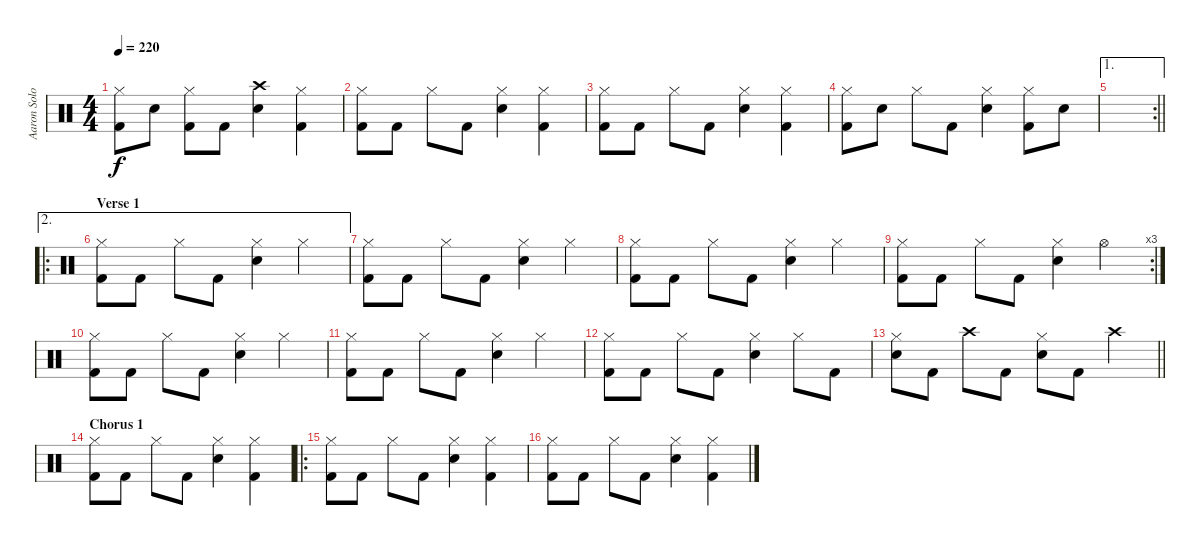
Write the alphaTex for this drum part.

\track ("Aaron Solowoniuk" "Aaron Solo") {instrument percussion}
\staff {score}
\articulation defaults
\ts (4 4)
\tempo 220
\clef neutral
\ks c
("Hi-Hat (closed)" "Kick (hit) 2").8{dy f} "Snare (hit) 2".8 ("Hi-Hat (closed)" "Kick (hit) 2").8 "Kick (hit) 2".8 ("Crash high (hit)" "Snare (hit) 2").4 ("Hi-Hat (closed)" "Kick (hit) 2").4 |
("Hi-Hat (closed)" "Kick (hit) 2").8 "Kick (hit) 2".8 "Hi-Hat (closed)".8 "Kick (hit) 2".8 ("Hi-Hat (closed)" "Snare (hit) 2").4 ("Hi-Hat (closed)" "Kick (hit) 2").4 |
("Hi-Hat (closed)" "Kick (hit) 2").8 "Kick (hit) 2".8 "Hi-Hat (closed)".8 "Kick (hit) 2".8 ("Hi-Hat (closed)" "Snare (hit) 2").4 ("Hi-Hat (closed)" "Kick (hit) 2").4 |
("Hi-Hat (closed)" "Kick (hit) 2").8 "Snare (hit) 2".8 "Hi-Hat (closed)".8 "Kick (hit) 2".8 ("Hi-Hat (closed)" "Snare (hit) 2").4 ("Hi-Hat (closed)" "Kick (hit) 2").8 "Snare (hit) 2".8 |
\ae 1
\rc 2
\barLineRight lightlight
|
\ae 2
\ro
\section ("" "Verse 1")
("Hi-Hat (closed)" "Kick (hit) 2").8 "Kick (hit) 2".8 "Hi-Hat (closed)".8 "Kick (hit) 2".8 ("Hi-Hat (closed)" "Snare (hit) 2").4 "Hi-Hat (closed)".4 |
("Hi-Hat (closed)" "Kick (hit) 2").8 "Kick (hit) 2".8 "Hi-Hat (closed)".8 "Kick (hit) 2".8 ("Hi-Hat (closed)" "Snare (hit) 2").4 "Hi-Hat (closed)".4 |
("Hi-Hat (closed)" "Kick (hit) 2").8 "Kick (hit) 2".8 "Hi-Hat (closed)".8 "Kick (hit) 2".8 ("Hi-Hat (closed)" "Snare (hit) 2").4 "Hi-Hat (closed)".4 |
\rc 3
("Hi-Hat (closed)" "Kick (hit) 2").8 "Kick (hit) 2".8 "Hi-Hat (closed)".8 "Kick (hit) 2".8 ("Hi-Hat (closed)" "Snare (hit) 2").4 "Hi-Hat (open)".4 |
("Hi-Hat (closed)" "Kick (hit) 2").8 "Kick (hit) 2".8 "Hi-Hat (closed)".8 "Kick (hit) 2".8 ("Hi-Hat (closed)" "Snare (hit) 2").4 "Hi-Hat (closed)".4 |
("Hi-Hat (closed)" "Kick (hit) 2").8 "Kick (hit) 2".8 "Hi-Hat (closed)".8 "Kick (hit) 2".8 ("Hi-Hat (closed)" "Snare (hit) 2").4 "Hi-Hat (closed)".4 |
("Hi-Hat (closed)" "Kick (hit) 2").8 "Kick (hit) 2".8 "Hi-Hat (closed)".8 "Kick (hit) 2".8 ("Hi-Hat (closed)" "Snare (hit) 2").4 "Hi-Hat (closed)".8 "Kick (hit) 2".8 |
\barLineRight lightlight
("Hi-Hat (closed)" "Snare (hit) 2").8 "Kick (hit) 2".8 "Crash high (hit)".8 "Kick (hit) 2".8 ("Hi-Hat (closed)" "Snare (hit) 2").8 "Kick (hit) 2".8 "Crash high (hit)".4 |
\section ("" "Chorus 1")
("Hi-Hat (closed)" "Kick (hit) 2").8 "Kick (hit) 2".8 "Hi-Hat (closed)".8 "Kick (hit) 2".8 ("Hi-Hat (closed)" "Snare (hit) 2").4 ("Hi-Hat (closed)" "Kick (hit) 2").4 |
\ro
("Hi-Hat (closed)" "Kick (hit) 2").8 "Kick (hit) 2".8 "Hi-Hat (closed)".8 "Kick (hit) 2".8 ("Hi-Hat (closed)" "Snare (hit) 2").4 ("Hi-Hat (closed)" "Kick (hit) 2").4 |
("Hi-Hat (closed)" "Kick (hit) 2").8 "Kick (hit) 2".8 "Hi-Hat (closed)".8 "Kick (hit) 2".8 ("Hi-Hat (closed)" "Snare (hit) 2").4 ("Hi-Hat (closed)" "Kick (hit) 2").4
